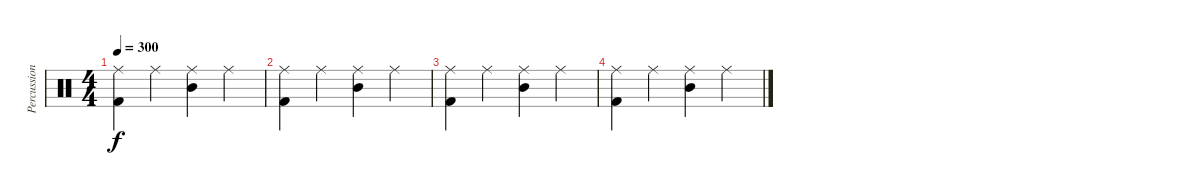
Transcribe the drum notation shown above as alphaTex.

\track ("Percussion" "Percussion") {instrument percussion}
\staff {score}
\articulation defaults
\ts (4 4)
\tempo 300
\clef neutral
\ks c
("Kick (hit) 2" "Ride (middle)").4{dy f} "Ride (middle)".4 ("Mid Tom (hit)" "Ride (middle)").4 "Ride (middle)".4 |
("Kick (hit) 2" "Ride (middle)").4 "Ride (middle)".4 ("Mid Tom (hit)" "Ride (middle)").4 "Ride (middle)".4 |
("Kick (hit) 2" "Ride (middle)").4 "Ride (middle)".4 ("Mid Tom (hit)" "Ride (middle)").4 "Ride (middle)".4 |
("Kick (hit) 2" "Ride (middle)").4 "Ride (middle)".4 ("Mid Tom (hit)" "Ride (middle)").4 "Ride (middle)".4
